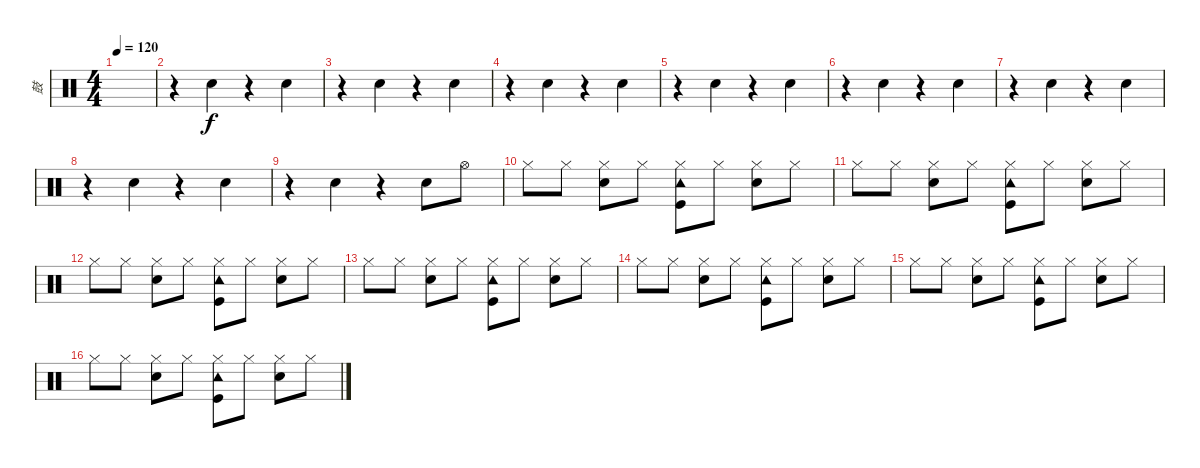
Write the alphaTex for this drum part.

\track ("鼓" "鼓") {instrument percussion}
\staff {score}
\articulation defaults
\ts (4 4)
\tempo 120
\clef neutral
\ks c
|
r.4 "Hand Clap (hit)".4 r.4 "Hand Clap (hit)".4 |
r.4 "Hand Clap (hit)".4 r.4 "Hand Clap (hit)".4 |
r.4 "Hand Clap (hit)".4 r.4 "Hand Clap (hit)".4 |
r.4 "Hand Clap (hit)".4 r.4 "Hand Clap (hit)".4 |
r.4 "Hand Clap (hit)".4 r.4 "Hand Clap (hit)".4 |
r.4 "Hand Clap (hit)".4 r.4 "Hand Clap (hit)".4 |
r.4 "Hand Clap (hit)".4 r.4 "Hand Clap (hit)".4 |
r.4 "Hand Clap (hit)".4 r.4 "Hand Clap (hit)".8 "Hi-Hat (open)".8 |
"Hi-Hat (closed)".8 "Hi-Hat (closed)".8 ("Hand Clap (hit)" "Hi-Hat (closed)").8 "Hi-Hat (closed)".8 ("Tambourine (hit)" "Kick (hit)" "Hi-Hat (closed)").8 "Hi-Hat (closed)".8 ("Hand Clap (hit)" "Hi-Hat (closed)").8 "Hi-Hat (closed)".8 |
"Hi-Hat (closed)".8 "Hi-Hat (closed)".8 ("Hand Clap (hit)" "Hi-Hat (closed)").8 "Hi-Hat (closed)".8 ("Tambourine (hit)" "Kick (hit)" "Hi-Hat (closed)").8 "Hi-Hat (closed)".8 ("Hand Clap (hit)" "Hi-Hat (closed)").8 "Hi-Hat (closed)".8 |
"Hi-Hat (closed)".8 "Hi-Hat (closed)".8 ("Hand Clap (hit)" "Hi-Hat (closed)").8 "Hi-Hat (closed)".8 ("Tambourine (hit)" "Kick (hit)" "Hi-Hat (closed)").8 "Hi-Hat (closed)".8 ("Hand Clap (hit)" "Hi-Hat (closed)").8 "Hi-Hat (closed)".8 |
"Hi-Hat (closed)".8 "Hi-Hat (closed)".8 ("Hand Clap (hit)" "Hi-Hat (closed)").8 "Hi-Hat (closed)".8 ("Tambourine (hit)" "Kick (hit)" "Hi-Hat (closed)").8 "Hi-Hat (closed)".8 ("Hand Clap (hit)" "Hi-Hat (closed)").8 "Hi-Hat (closed)".8 |
"Hi-Hat (closed)".8 "Hi-Hat (closed)".8 ("Hand Clap (hit)" "Hi-Hat (closed)").8 "Hi-Hat (closed)".8 ("Tambourine (hit)" "Kick (hit)" "Hi-Hat (closed)").8 "Hi-Hat (closed)".8 ("Hand Clap (hit)" "Hi-Hat (closed)").8 "Hi-Hat (closed)".8 |
"Hi-Hat (closed)".8 "Hi-Hat (closed)".8 ("Hand Clap (hit)" "Hi-Hat (closed)").8 "Hi-Hat (closed)".8 ("Tambourine (hit)" "Kick (hit)" "Hi-Hat (closed)").8 "Hi-Hat (closed)".8 ("Hand Clap (hit)" "Hi-Hat (closed)").8 "Hi-Hat (closed)".8 |
"Hi-Hat (closed)".8 "Hi-Hat (closed)".8 ("Hand Clap (hit)" "Hi-Hat (closed)").8 "Hi-Hat (closed)".8 ("Tambourine (hit)" "Kick (hit)" "Hi-Hat (closed)").8 "Hi-Hat (closed)".8 ("Hand Clap (hit)" "Hi-Hat (closed)").8 "Hi-Hat (closed)".8
